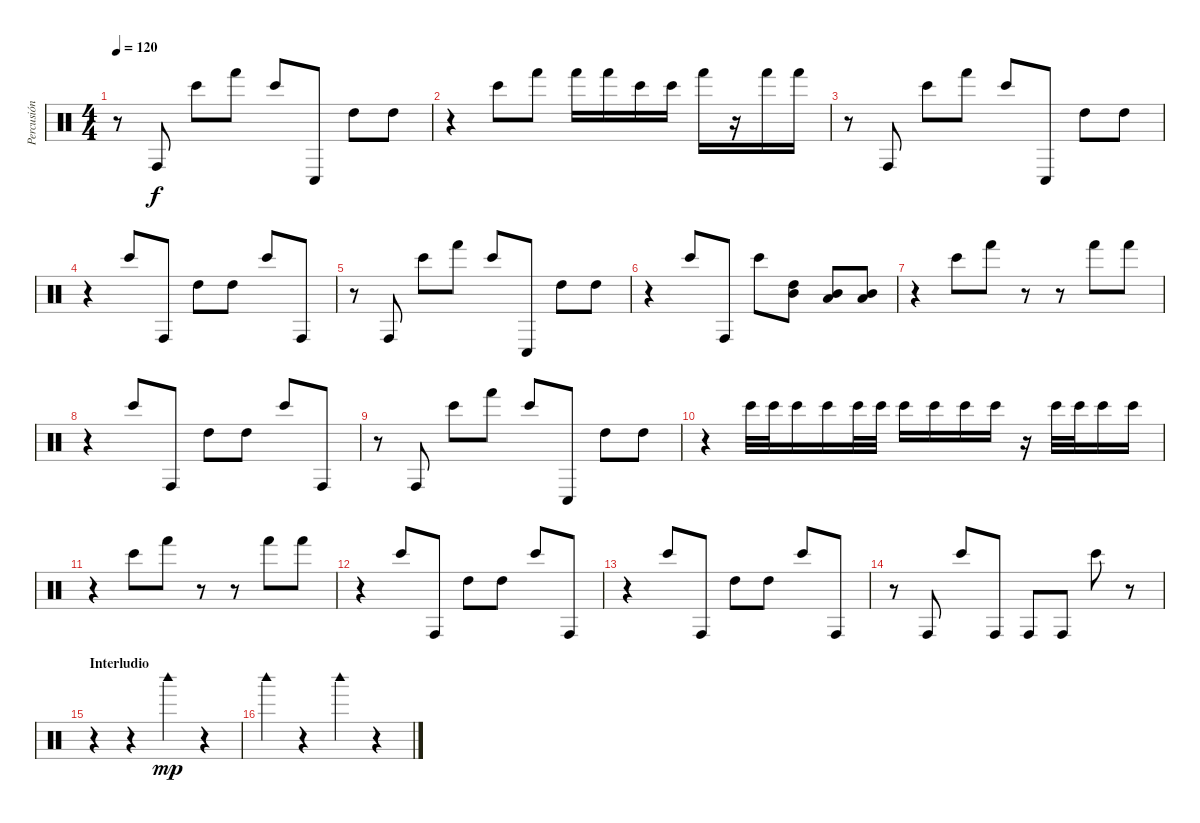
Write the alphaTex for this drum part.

\track ("Percusión" "Percusión") {instrument percussion}
\staff {score}
\articulation defaults
\ts (4 4)
\tempo 120
\clef neutral
\ks c
r.8{dy f} "Conga high (hit)".8 "Bongo High (hit)".8 "Hand (hit)".8 "Bongo High (hit)".8 "Conga low (hit)".8 "High Tom (hit)".8 "High Tom (hit)".8 |
r.4 "Bongo High (hit)".8 "Hand (hit)".8 "Hand (hit)".16 "Hand (hit)".16 "Bongo High (hit)".16 "Bongo High (hit)".16 "Hand (hit)".16 r.16 "Hand (hit)".16 "Hand (hit)".16 |
r.8 "Conga high (hit)".8 "Bongo High (hit)".8 "Hand (hit)".8 "Bongo High (hit)".8 "Conga low (hit)".8 "High Tom (hit)".8 "High Tom (hit)".8 |
r.4 "Bongo High (hit)".8 "Conga high (hit)".8 "High Tom (hit)".8 "High Tom (hit)".8 "Bongo High (hit)".8 "Conga high (hit)".8 |
r.8 "Conga high (hit)".8 "Bongo High (hit)".8 "Hand (hit)".8 "Bongo High (hit)".8 "Conga low (hit)".8 "High Tom (hit)".8 "High Tom (hit)".8 |
r.4 "Bongo High (hit)".8 "Conga high (hit)".8 "Bongo High (hit)".8 ("Mid Tom (hit)" "High Tom (hit)").8 ("Mid Tom (hit)" "Low Tom (hit)").8 ("Mid Tom (hit)" "Low Tom (hit)").8 |
r.4 "Bongo High (hit)".8 "Hand (hit)".8 r.8 r.8 "Hand (hit)".8 "Hand (hit)".8 |
r.4 "Bongo High (hit)".8 "Conga high (hit)".8 "High Tom (hit)".8 "High Tom (hit)".8 "Bongo High (hit)".8 "Conga high (hit)".8 |
r.8 "Conga high (hit)".8 "Bongo High (hit)".8 "Hand (hit)".8 "Bongo High (hit)".8 "Conga low (hit)".8 "High Tom (hit)".8 "High Tom (hit)".8 |
r.4 "Bongo High (hit)".32 "Bongo High (hit)".32 "Bongo High (hit)".16 "Bongo High (hit)".16 "Bongo High (hit)".32 "Bongo High (hit)".32 "Bongo High (hit)".16 "Bongo High (hit)".16 "Bongo High (hit)".16 "Bongo High (hit)".16 r.16 "Bongo High (hit)".32 "Bongo High (hit)".32 "Bongo High (hit)".16 "Bongo High (hit)".16 |
r.4 "Bongo High (hit)".8 "Hand (hit)".8 r.8 r.8 "Hand (hit)".8 "Hand (hit)".8 |
r.4 "Bongo High (hit)".8 "Conga high (hit)".8 "High Tom (hit)".8 "High Tom (hit)".8 "Bongo High (hit)".8 "Conga high (hit)".8 |
r.4 "Bongo High (hit)".8 "Conga high (hit)".8 "High Tom (hit)".8 "High Tom (hit)".8 "Bongo High (hit)".8 "Conga high (hit)".8 |
r.8 "Conga high (hit)".8 "Bongo High (hit)".8 "Conga high (hit)".8 "Conga high (hit)".8 "Conga high (hit)".8 "Bongo High (hit)".8 r.8 |
\section ("" "Interludio")
r.4 r.4 "Woodblock high (hit)".4{dy mp} r.4 |
"Woodblock high (hit)".4 r.4 "Woodblock high (hit)".4 r.4
